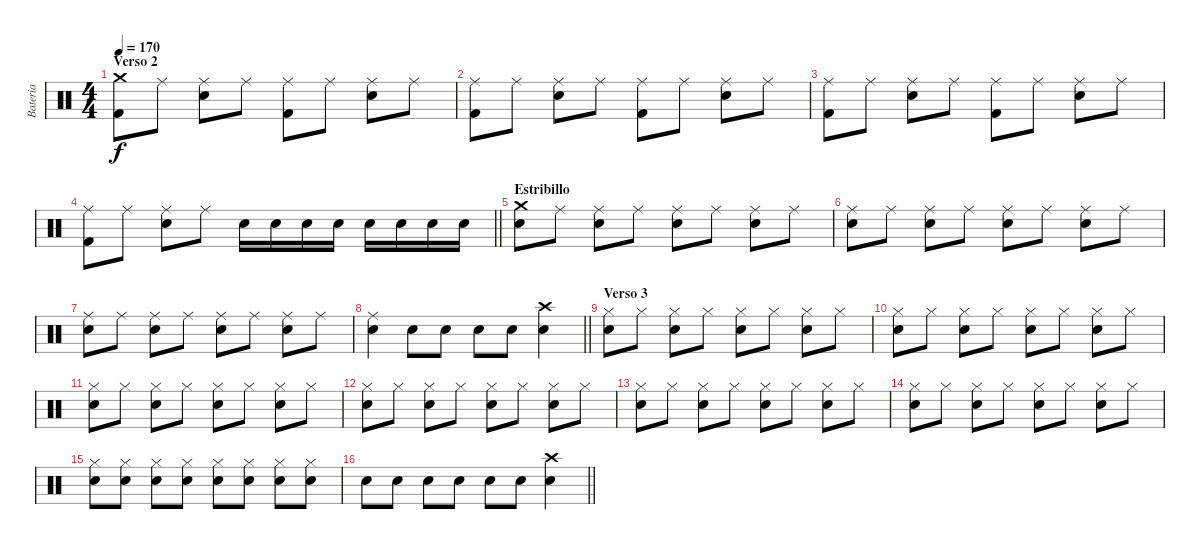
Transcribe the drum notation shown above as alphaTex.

\track ("Bateria" "Bateria") {instrument percussion}
\staff {score}
\articulation defaults
\ts (4 4)
\section ("" "Verso 2")
\tempo 170
\clef neutral
\ks c
("Crash medium (hit)" "Kick (hit) 2").8{dy f} "Ride (middle)".8 ("Ride (middle)" "Snare (hit) 2").8 "Ride (middle)".8 ("Ride (middle)" "Kick (hit) 2").8 "Ride (middle)".8 ("Ride (middle)" "Snare (hit) 2").8 "Ride (middle)".8 |
("Ride (middle)" "Kick (hit) 2").8 "Ride (middle)".8 ("Ride (middle)" "Snare (hit) 2").8 "Ride (middle)".8 ("Ride (middle)" "Kick (hit) 2").8 "Ride (middle)".8 ("Ride (middle)" "Snare (hit) 2").8 "Ride (middle)".8 |
("Ride (middle)" "Kick (hit) 2").8 "Ride (middle)".8 ("Ride (middle)" "Snare (hit) 2").8 "Ride (middle)".8 ("Ride (middle)" "Kick (hit) 2").8 "Ride (middle)".8 ("Ride (middle)" "Snare (hit) 2").8 "Ride (middle)".8 |
\barLineRight lightlight
("Ride (middle)" "Kick (hit) 2").8 "Ride (middle)".8 ("Ride (middle)" "Snare (hit) 2").8 "Ride (middle)".8 "Snare (hit) 2".16 "Snare (hit) 2".16 "Snare (hit) 2".16 "Snare (hit) 2".16 "Snare (hit) 2".16 "Snare (hit) 2".16 "Snare (hit) 2".16 "Snare (hit) 2".16 |
\section ("" "Estribillo")
("Crash medium (hit)" "Snare (hit) 2").8 "Ride (middle)".8 ("Ride (middle)" "Snare (hit) 2").8 "Ride (middle)".8 ("Ride (middle)" "Snare (hit) 2").8 "Ride (middle)".8 ("Ride (middle)" "Snare (hit) 2").8 "Ride (middle)".8 |
("Ride (middle)" "Snare (hit) 2").8 "Ride (middle)".8 ("Ride (middle)" "Snare (hit) 2").8 "Ride (middle)".8 ("Ride (middle)" "Snare (hit) 2").8 "Ride (middle)".8 ("Ride (middle)" "Snare (hit) 2").8 "Ride (middle)".8 |
("Ride (middle)" "Snare (hit) 2").8 "Ride (middle)".8 ("Ride (middle)" "Snare (hit) 2").8 "Ride (middle)".8 ("Ride (middle)" "Snare (hit) 2").8 "Ride (middle)".8 ("Ride (middle)" "Snare (hit) 2").8 "Ride (middle)".8 |
\barLineRight lightlight
("Ride (middle)" "Snare (hit) 2").4 "Snare (hit) 2".8 "Snare (hit) 2".8 "Snare (hit) 2".8 "Snare (hit) 2".8 ("Crash high (hit)" "Snare (hit) 2").4 |
\section ("" "Verso 3")
("Hi-Hat (closed)" "Snare (hit) 2").8 "Hi-Hat (closed)".8 ("Hi-Hat (closed)" "Snare (hit) 2").8 "Hi-Hat (closed)".8 ("Hi-Hat (closed)" "Snare (hit) 2").8 "Hi-Hat (closed)".8 ("Hi-Hat (closed)" "Snare (hit) 2").8 "Hi-Hat (closed)".8 |
("Hi-Hat (closed)" "Snare (hit) 2").8 "Hi-Hat (closed)".8 ("Hi-Hat (closed)" "Snare (hit) 2").8 "Hi-Hat (closed)".8 ("Hi-Hat (closed)" "Snare (hit) 2").8 "Hi-Hat (closed)".8 ("Hi-Hat (closed)" "Snare (hit) 2").8 "Hi-Hat (closed)".8 |
("Hi-Hat (closed)" "Snare (hit) 2").8 "Hi-Hat (closed)".8 ("Hi-Hat (closed)" "Snare (hit) 2").8 "Hi-Hat (closed)".8 ("Hi-Hat (closed)" "Snare (hit) 2").8 "Hi-Hat (closed)".8 ("Hi-Hat (closed)" "Snare (hit) 2").8 "Hi-Hat (closed)".8 |
("Hi-Hat (closed)" "Snare (hit) 2").8 "Hi-Hat (closed)".8 ("Hi-Hat (closed)" "Snare (hit) 2").8 "Hi-Hat (closed)".8 ("Hi-Hat (closed)" "Snare (hit) 2").8 "Hi-Hat (closed)".8 ("Hi-Hat (closed)" "Snare (hit) 2").8 "Hi-Hat (closed)".8 |
("Hi-Hat (closed)" "Snare (hit) 2").8 "Hi-Hat (closed)".8 ("Hi-Hat (closed)" "Snare (hit) 2").8 "Hi-Hat (closed)".8 ("Hi-Hat (closed)" "Snare (hit) 2").8 "Hi-Hat (closed)".8 ("Hi-Hat (closed)" "Snare (hit) 2").8 "Hi-Hat (closed)".8 |
("Hi-Hat (closed)" "Snare (hit) 2").8 "Hi-Hat (closed)".8 ("Hi-Hat (closed)" "Snare (hit) 2").8 "Hi-Hat (closed)".8 ("Hi-Hat (closed)" "Snare (hit) 2").8 "Hi-Hat (closed)".8 ("Hi-Hat (closed)" "Snare (hit) 2").8 "Hi-Hat (closed)".8 |
("Hi-Hat (closed)" "Snare (hit) 2").8 ("Hi-Hat (closed)" "Snare (hit) 2").8 ("Hi-Hat (closed)" "Snare (hit) 2").8 ("Hi-Hat (closed)" "Snare (hit) 2").8 ("Hi-Hat (closed)" "Snare (hit) 2").8 ("Hi-Hat (closed)" "Snare (hit) 2").8 ("Hi-Hat (closed)" "Snare (hit) 2").8 ("Hi-Hat (closed)" "Snare (hit) 2").8 |
\barLineRight lightlight "Snare (hit) 2".8 "Snare (hit) 2".8 "Snare (hit) 2".8 "Snare (hit) 2".8 "Snare (hit) 2".8 "Snare (hit) 2".8
("Crash high (hit)" "Snare (hit) 2").4
